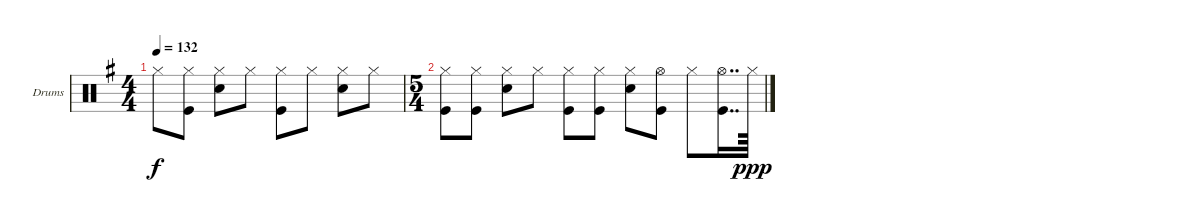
\bracketExtendMode groupsimilarinstruments
\firstSystemTrackNameOrientation horizontal
\otherSystemsTrackNameOrientation horizontal
\track ("Drumkit" "Drums") {instrument percussion}
\staff {score}
\articulation defaults
\ts (4 4)
\tempo 132
\clef neutral
\ks g "Hi-Hat (closed)".8{dy f}
("Kick (hit)" "Hi-Hat (closed)").8 ("Snare (hit) 2" "Hi-Hat (closed)").8 "Hi-Hat (closed)".8 ("Hi-Hat (closed)" "Kick (hit)").8 "Hi-Hat (closed)".8 ("Hi-Hat (closed)" "Snare (hit) 2").8 "Hi-Hat (closed)".8 |
\ts (5 4)
("Kick (hit)" "Hi-Hat (closed)").8 ("Kick (hit)" "Hi-Hat (closed)").8 ("Snare (hit) 2" "Hi-Hat (closed)").8 "Hi-Hat (closed)".8 ("Hi-Hat (closed)" "Kick (hit)").8 ("Hi-Hat (closed)" "Kick (hit)").8 ("Hi-Hat (closed)" "Snare (hit) 2").8 ("Hi-Hat (open)" "Kick (hit)").8 "Hi-Hat (closed)".8 ("Hi-Hat (open)" "Kick (hit)").16{dd} "Hi-Hat (closed)".64{dy ppp}
